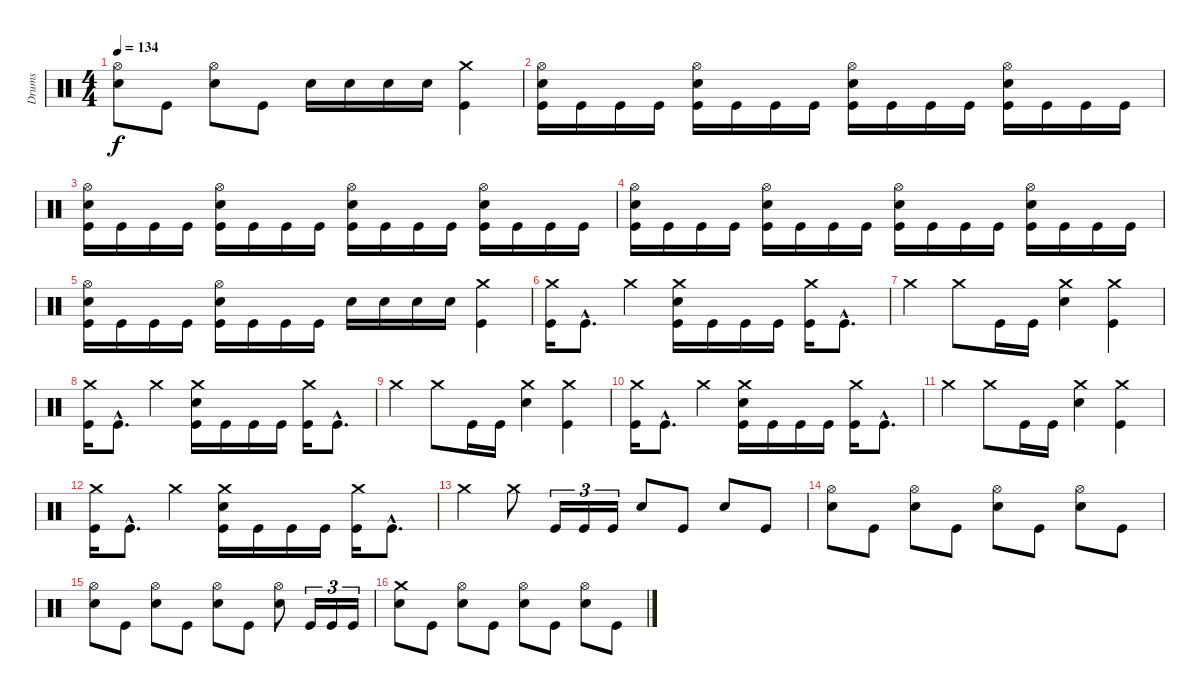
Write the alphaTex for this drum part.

\track ("Drums" "Drums") {instrument percussion}
\staff {score}
\articulation defaults
\ts (4 4)
\tempo 134
\clef neutral
\ks c
("Hi-Hat (open)" "Electric Snare (hit)").8{dy f} "Kick (hit)".8 ("Hi-Hat (open)" "Electric Snare (hit)").8 "Kick (hit)".8 "Electric Snare (hit)".16 "Electric Snare (hit)".16 "Electric Snare (hit)".16 "Electric Snare (hit)".16 ("Crash medium (hit)" "Kick (hit)").4 |
("Electric Snare (hit)" "Hi-Hat (open)" "Kick (hit)").16 "Kick (hit)".16 "Kick (hit)".16 "Kick (hit)".16 ("Electric Snare (hit)" "Hi-Hat (open)" "Kick (hit)").16 "Kick (hit)".16 "Kick (hit)".16 "Kick (hit)".16 ("Electric Snare (hit)" "Hi-Hat (open)" "Kick (hit)").16 "Kick (hit)".16 "Kick (hit)".16 "Kick (hit)".16 ("Electric Snare (hit)" "Hi-Hat (open)" "Kick (hit)").16 "Kick (hit)".16 "Kick (hit)".16 "Kick (hit)".16 |
("Electric Snare (hit)" "Hi-Hat (open)" "Kick (hit)").16 "Kick (hit)".16 "Kick (hit)".16 "Kick (hit)".16 ("Electric Snare (hit)" "Hi-Hat (open)" "Kick (hit)").16 "Kick (hit)".16 "Kick (hit)".16 "Kick (hit)".16 ("Electric Snare (hit)" "Hi-Hat (open)" "Kick (hit)").16 "Kick (hit)".16 "Kick (hit)".16 "Kick (hit)".16 ("Electric Snare (hit)" "Hi-Hat (open)" "Kick (hit)").16 "Kick (hit)".16 "Kick (hit)".16 "Kick (hit)".16 |
("Electric Snare (hit)" "Hi-Hat (open)" "Kick (hit)").16 "Kick (hit)".16 "Kick (hit)".16 "Kick (hit)".16 ("Electric Snare (hit)" "Hi-Hat (open)" "Kick (hit)").16 "Kick (hit)".16 "Kick (hit)".16 "Kick (hit)".16 ("Electric Snare (hit)" "Hi-Hat (open)" "Kick (hit)").16 "Kick (hit)".16 "Kick (hit)".16 "Kick (hit)".16 ("Electric Snare (hit)" "Hi-Hat (open)" "Kick (hit)").16 "Kick (hit)".16 "Kick (hit)".16 "Kick (hit)".16 |
("Electric Snare (hit)" "Hi-Hat (open)" "Kick (hit)").16 "Kick (hit)".16 "Kick (hit)".16 "Kick (hit)".16 ("Electric Snare (hit)" "Hi-Hat (open)" "Kick (hit)").16 "Kick (hit)".16 "Kick (hit)".16 "Kick (hit)".16 "Electric Snare (hit)".16 "Electric Snare (hit)".16 "Electric Snare (hit)".16 "Electric Snare (hit)".16 ("Crash medium (hit)" "Kick (hit)").4 |
("Crash medium (hit)" "Kick (hit)").16 "Kick (hit)"{hac}.8{d} "Crash medium (hit)".4 ("Kick (hit)" "Crash medium (hit)" "Electric Snare (hit)").16 "Kick (hit)".16 "Kick (hit)".16 "Kick (hit)".16 ("Crash medium (hit)" "Kick (hit)").16 "Kick (hit)"{hac}.8{d} |
"Crash medium (hit)".4 "Crash medium (hit)".8 "Kick (hit)".16 "Kick (hit)".16 ("Crash medium (hit)" "Electric Snare (hit)").4 ("Crash medium (hit)" "Kick (hit)").4 |
("Crash medium (hit)" "Kick (hit)").16 "Kick (hit)"{hac}.8{d} "Crash medium (hit)".4 ("Kick (hit)" "Crash medium (hit)" "Electric Snare (hit)").16 "Kick (hit)".16 "Kick (hit)".16 "Kick (hit)".16 ("Crash medium (hit)" "Kick (hit)").16 "Kick (hit)"{hac}.8{d} |
"Crash medium (hit)".4 "Crash medium (hit)".8 "Kick (hit)".16 "Kick (hit)".16 ("Crash medium (hit)" "Electric Snare (hit)").4 ("Crash medium (hit)" "Kick (hit)").4 |
("Crash medium (hit)" "Kick (hit)").16 "Kick (hit)"{hac}.8{d} "Crash medium (hit)".4 ("Kick (hit)" "Crash medium (hit)" "Electric Snare (hit)").16 "Kick (hit)".16 "Kick (hit)".16 "Kick (hit)".16 ("Crash medium (hit)" "Kick (hit)").16 "Kick (hit)"{hac}.8{d} |
"Crash medium (hit)".4 "Crash medium (hit)".8 "Kick (hit)".16 "Kick (hit)".16 ("Crash medium (hit)" "Electric Snare (hit)").4 ("Crash medium (hit)" "Kick (hit)").4 |
("Crash medium (hit)" "Kick (hit)").16 "Kick (hit)"{hac}.8{d} "Crash medium (hit)".4 ("Kick (hit)" "Crash medium (hit)" "Electric Snare (hit)").16 "Kick (hit)".16 "Kick (hit)".16 "Kick (hit)".16 ("Crash medium (hit)" "Kick (hit)").16 "Kick (hit)"{hac}.8{d} |
"Crash medium (hit)".4 "Crash medium (hit)".8 "Kick (hit)".16{tu (3 2)} "Kick (hit)".16{tu (3 2)} "Kick (hit)".16{tu (3 2)} "Electric Snare (hit)".8 "Kick (hit)".8 "Electric Snare (hit)".8 "Kick (hit)".8 |
("Hi-Hat (open)" "Electric Snare (hit)").8 "Kick (hit)".8 ("Hi-Hat (open)" "Electric Snare (hit)").8 "Kick (hit)".8 ("Hi-Hat (open)" "Electric Snare (hit)").8 "Kick (hit)".8 ("Hi-Hat (open)" "Electric Snare (hit)").8 "Kick (hit)".8 |
("Hi-Hat (open)" "Electric Snare (hit)").8 "Kick (hit)".8 ("Hi-Hat (open)" "Electric Snare (hit)").8 "Kick (hit)".8 ("Hi-Hat (open)" "Electric Snare (hit)").8 "Kick (hit)".8 ("Hi-Hat (open)" "Electric Snare (hit)").8 "Kick (hit)".16{tu (3 2)} "Kick (hit)".16{tu (3 2)} "Kick (hit)".16{tu (3 2)} |
("Crash medium (hit)" "Electric Snare (hit)").8 "Kick (hit)".8 ("Hi-Hat (open)" "Electric Snare (hit)").8 "Kick (hit)".8 ("Hi-Hat (open)" "Electric Snare (hit)").8 "Kick (hit)".8 ("Hi-Hat (open)" "Electric Snare (hit)").8 "Kick (hit)".8
